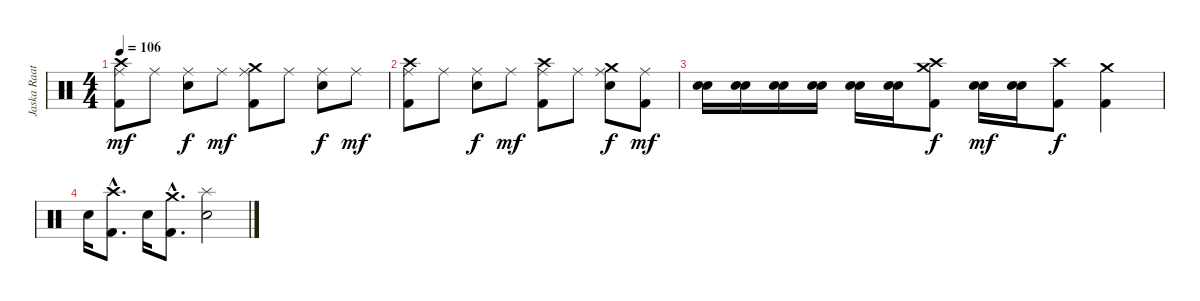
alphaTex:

\track ("Jaska Raatikainen" "Jaska Raat") {instrument percussion}
\staff {score}
\articulation defaults
\ts (4 4)
\tempo 106
\clef neutral
\ks c
("Kick (hit) 2" "Crash high (hit)" "Ride (middle)").8{dy mf} "Ride (middle)".8 ("Ride (middle)" "Snare (hit) 2").8{dy f} "Ride (middle)".8{dy mf} ("Kick (hit) 2" "Crash medium (hit)" "Ride (middle)").8 "Ride (middle)".8 ("Ride (middle)" "Snare (hit) 2").8{dy f} "Ride (middle)".8{dy mf} |
("Kick (hit) 2" "Crash high (hit)" "Ride (middle)").8 "Ride (middle)".8 ("Ride (middle)" "Snare (hit) 2").8{dy f} "Ride (middle)".8{dy mf} ("Kick (hit) 2" "Crash high (hit)" "Ride (middle)").8 "Ride (middle)".8 ("Crash medium (hit)" "Ride (middle)" "Snare (hit) 2").8{dy f} ("Kick (hit) 2" "Ride (middle)").8{dy mf} |
("Electric Snare (hit)" "Snare (hit) 2").16 ("Electric Snare (hit)" "Snare (hit) 2").16 ("Electric Snare (hit)" "Snare (hit) 2").16 ("Electric Snare (hit)" "Snare (hit) 2").16 ("Electric Snare (hit)" "Snare (hit) 2").16 ("Electric Snare (hit)" "Snare (hit) 2").16 ("Kick (hit) 2" "Crash high (hit)" "Crash medium (hit)").8{dy f} ("Electric Snare (hit)" "Snare (hit) 2").16{dy mf} ("Electric Snare (hit)" "Snare (hit) 2").16 ("Kick (hit) 2" "Crash high (hit)").8{dy f} ("Kick (hit) 2" "Crash medium (hit)").4 |
"Snare (hit) 2".16 ("Kick (hit) 2"{hac} "Crash high (hit)"{hac}).8{d} "Snare (hit) 2".16 ("Kick (hit) 2"{hac} "Crash medium (hit)"{hac}).8{d} ("Splash (hit)" "Snare (hit) 2").2
